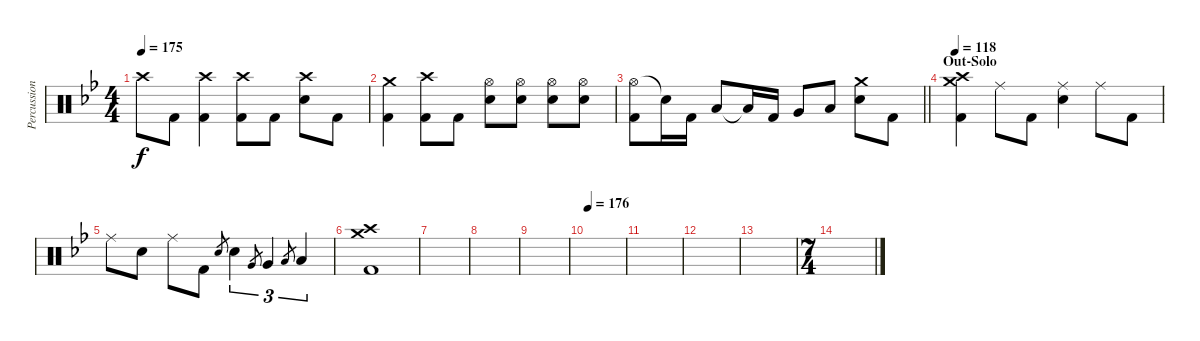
\track ("Percussion" "Percussion") {instrument percussion}
\staff {score}
\articulation defaults
\ts (4 4)
\tempo 175
\clef neutral
\ks bb "Crash high (hit)".8{dy f} "Kick (hit) 2".8
("Crash high (hit)" "Kick (hit) 2").4 ("Crash high (hit)" "Kick (hit) 2").8 "Kick (hit) 2".8 ("Crash high (hit)" "Electric Snare (hit)").8 "Kick (hit) 2".8 |
("Crash medium (hit)" "Kick (hit) 2").4 ("Crash high (hit)" "Kick (hit) 2").8 "Kick (hit) 2".8 ("Hi-Hat (open)" "Electric Snare (hit)").8 ("Hi-Hat (open)" "Electric Snare (hit)").8 ("Hi-Hat (open)" "Electric Snare (hit)").8 ("Hi-Hat (open)" "Electric Snare (hit)").8 |
\barLineRight lightlight
("Hi-Hat (open)" "Kick (hit) 2").8 "Snare (hit)"{t}.16 "Kick (hit) 2".16 "Low Tom (hit)".8 "Low Tom (hit)"{t}.16 "Kick (hit) 2".16 "Very Low Tom (hit)".8 "Low Floor Tom (hit)".8 ("Crash medium (hit)" "Electric Snare (hit)").8 "Kick (hit) 2".8 |
\section ("" "Out-Solo")
\tempo 118
("Crash medium (hit)" "Crash high (hit)" "Kick (hit) 2").4 "Ride (middle)".8 "Kick (hit) 2".8 ("Ride (middle)" "Electric Snare (hit)").4 "Ride (middle)".8 "Kick (hit) 2".8 |
"Ride (middle)".8 "Electric Snare (hit)".8 "Ride (middle)".8 "Kick (hit) 2".8 "Electric Snare (hit)".8{gr} "Electric Snare (hit)".4{tu (3 2)} "Very Low Tom (hit)".8{gr} "Very Low Tom (hit)".4{tu (3 2)} "Low Floor Tom (hit)".8{gr} "Low Floor Tom (hit)".4{tu (3 2)} |
("Crash medium (hit)" "Crash high (hit)" "Kick (hit) 2").1 |
|
|
|
\tempo 176
|
|
|
|
\ts (7 4)
